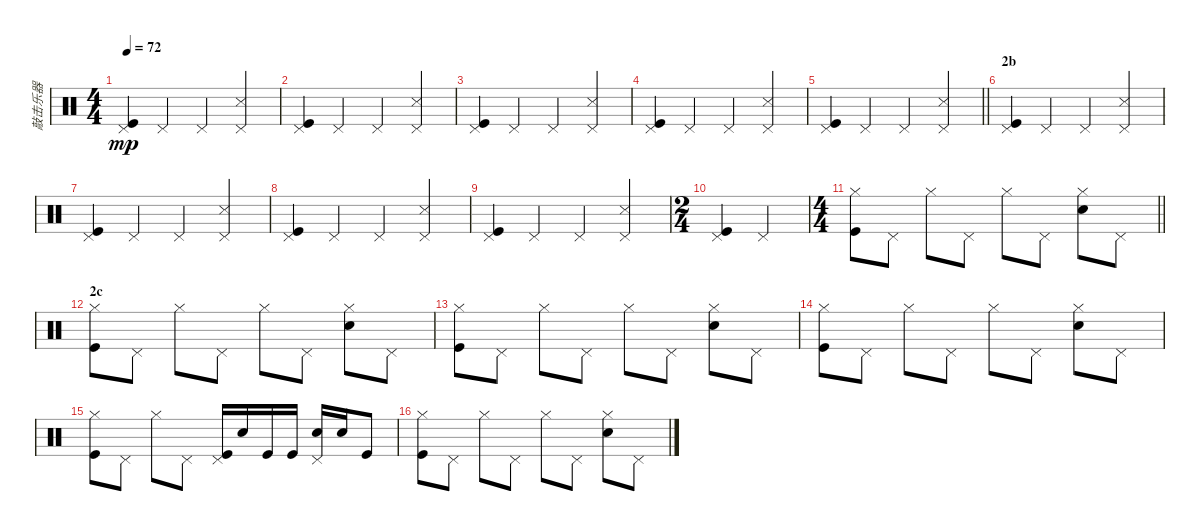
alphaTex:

\track ("敲击乐器" "敲击乐器") {instrument percussion}
\staff {score}
\articulation defaults
\ts (4 4)
\tempo 72
\clef neutral
\ks c
("Pedal Hi-Hat (hit)" "Kick (hit)").4{dy mp} "Pedal Hi-Hat (hit)".4 "Pedal Hi-Hat (hit)".4 ("Pedal Hi-Hat (hit)" "Snare (side stick) 3").4 |
("Pedal Hi-Hat (hit)" "Kick (hit)").4 "Pedal Hi-Hat (hit)".4 "Pedal Hi-Hat (hit)".4 ("Pedal Hi-Hat (hit)" "Snare (side stick) 3").4 |
("Pedal Hi-Hat (hit)" "Kick (hit)").4 "Pedal Hi-Hat (hit)".4 "Pedal Hi-Hat (hit)".4 ("Pedal Hi-Hat (hit)" "Snare (side stick) 3").4 |
("Pedal Hi-Hat (hit)" "Kick (hit)").4 "Pedal Hi-Hat (hit)".4 "Pedal Hi-Hat (hit)".4 ("Pedal Hi-Hat (hit)" "Snare (side stick) 3").4 |
\barLineRight lightlight
("Pedal Hi-Hat (hit)" "Kick (hit)").4 "Pedal Hi-Hat (hit)".4 "Pedal Hi-Hat (hit)".4 ("Pedal Hi-Hat (hit)" "Snare (side stick) 3").4 |
\section ("" "2b")
("Pedal Hi-Hat (hit)" "Kick (hit)").4 "Pedal Hi-Hat (hit)".4 "Pedal Hi-Hat (hit)".4 ("Pedal Hi-Hat (hit)" "Snare (side stick) 3").4 |
("Pedal Hi-Hat (hit)" "Kick (hit)").4 "Pedal Hi-Hat (hit)".4 "Pedal Hi-Hat (hit)".4 ("Pedal Hi-Hat (hit)" "Snare (side stick) 3").4 |
("Pedal Hi-Hat (hit)" "Kick (hit)").4 "Pedal Hi-Hat (hit)".4 "Pedal Hi-Hat (hit)".4 ("Pedal Hi-Hat (hit)" "Snare (side stick) 3").4 |
("Pedal Hi-Hat (hit)" "Kick (hit)").4 "Pedal Hi-Hat (hit)".4 "Pedal Hi-Hat (hit)".4 ("Pedal Hi-Hat (hit)" "Snare (side stick) 3").4 |
\ts (2 4)
("Pedal Hi-Hat (hit)" "Kick (hit)").4 "Pedal Hi-Hat (hit)".4 |
\ts (4 4)
\barLineRight lightlight
("Hi-Hat (closed)" "Kick (hit)").8 "Pedal Hi-Hat (hit)".8 "Hi-Hat (closed)".8 "Pedal Hi-Hat (hit)".8 "Hi-Hat (closed)".8 "Pedal Hi-Hat (hit)".8 ("Hi-Hat (closed)" "Electric Snare (hit)").8 "Pedal Hi-Hat (hit)".8 |
\section ("" "2c")
("Hi-Hat (closed)" "Kick (hit)").8 "Pedal Hi-Hat (hit)".8 "Hi-Hat (closed)".8 "Pedal Hi-Hat (hit)".8 "Hi-Hat (closed)".8 "Pedal Hi-Hat (hit)".8 ("Hi-Hat (closed)" "Electric Snare (hit)").8 "Pedal Hi-Hat (hit)".8 |
("Hi-Hat (closed)" "Kick (hit)").8 "Pedal Hi-Hat (hit)".8 "Hi-Hat (closed)".8 "Pedal Hi-Hat (hit)".8 "Hi-Hat (closed)".8 "Pedal Hi-Hat (hit)".8 ("Hi-Hat (closed)" "Electric Snare (hit)").8 "Pedal Hi-Hat (hit)".8 |
("Hi-Hat (closed)" "Kick (hit)").8 "Pedal Hi-Hat (hit)".8 "Hi-Hat (closed)".8 "Pedal Hi-Hat (hit)".8 "Hi-Hat (closed)".8 "Pedal Hi-Hat (hit)".8 ("Hi-Hat (closed)" "Electric Snare (hit)").8 "Pedal Hi-Hat (hit)".8 |
("Hi-Hat (closed)" "Kick (hit)").8 "Pedal Hi-Hat (hit)".8 "Hi-Hat (closed)".8 "Pedal Hi-Hat (hit)".8 ("Pedal Hi-Hat (hit)" "Kick (hit)").16 "Electric Snare (hit)".16 "Kick (hit)".16 "Kick (hit)".16 ("Pedal Hi-Hat (hit)" "Electric Snare (hit)").16 "Electric Snare (hit)".16 "Kick (hit)".8 |
("Hi-Hat (closed)" "Kick (hit)").8 "Pedal Hi-Hat (hit)".8 "Hi-Hat (closed)".8 "Pedal Hi-Hat (hit)".8 "Hi-Hat (closed)".8 "Pedal Hi-Hat (hit)".8 ("Hi-Hat (closed)" "Electric Snare (hit)").8 "Pedal Hi-Hat (hit)".8
